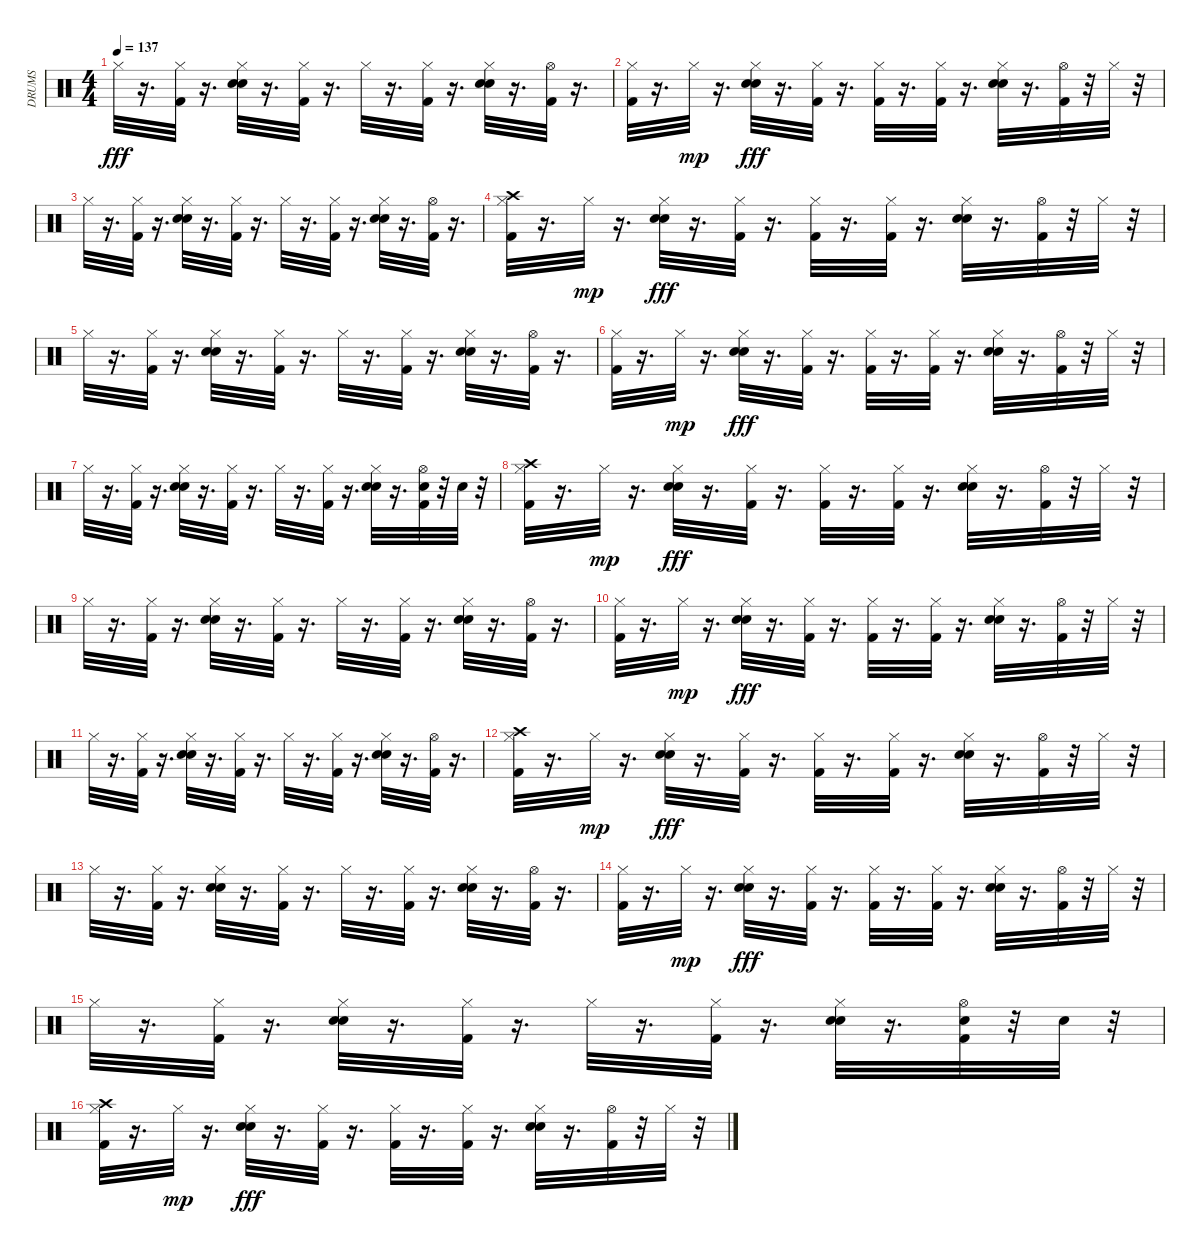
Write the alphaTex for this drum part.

\track ("DRUMS" "DRUMS") {instrument percussion}
\staff {score}
\articulation defaults
\ts (4 4)
\tempo 137
\clef neutral
\ks c "Hi-Hat (closed)".32{dy fff}
r.16{d} ("Hi-Hat (closed)" "Kick (hit) 2").32 r.16{d} ("Snare (hit) 2" "Hand Clap (hit)" "Hi-Hat (closed)").32 r.16{d} ("Hi-Hat (closed)" "Kick (hit) 2").32 r.16{d} "Hi-Hat (closed)".32 r.16{d} ("Hi-Hat (closed)" "Kick (hit) 2").32 r.16{d} ("Hand Clap (hit)" "Hi-Hat (closed)" "Snare (hit) 2").32 r.16{d} ("Hi-Hat (open)" "Kick (hit) 2").32 r.16{d} |
("Hi-Hat (closed)" "Kick (hit) 2").32 r.16{d} "Hi-Hat (closed)".32{dy mp} r.16{d} ("Hand Clap (hit)" "Hi-Hat (closed)" "Snare (hit) 2").32{dy fff} r.16{d} ("Hi-Hat (closed)" "Kick (hit) 2").32 r.16{d} ("Hi-Hat (closed)" "Kick (hit) 2").32 r.16{d} ("Hi-Hat (closed)" "Kick (hit) 2").32 r.16{d} ("Hand Clap (hit)" "Hi-Hat (closed)" "Snare (hit) 2").32 r.16{d} ("Hi-Hat (open)" "Kick (hit) 2").32 r.32 "Hi-Hat (closed)".32 r.32 |
"Hi-Hat (closed)".32 r.16{d} ("Hi-Hat (closed)" "Kick (hit) 2").32 r.16{d} ("Hand Clap (hit)" "Hi-Hat (closed)" "Snare (hit) 2").32 r.16{d} ("Hi-Hat (closed)" "Kick (hit) 2").32 r.16{d} "Hi-Hat (closed)".32 r.16{d} ("Hi-Hat (closed)" "Kick (hit) 2").32 r.16{d} ("Hand Clap (hit)" "Hi-Hat (closed)" "Snare (hit) 2").32 r.16{d} ("Hi-Hat (open)" "Kick (hit) 2").32 r.16{d} |
("Crash high (hit)" "Hi-Hat (closed)" "Kick (hit) 2").32 r.16{d} "Hi-Hat (closed)".32{dy mp} r.16{d} ("Hand Clap (hit)" "Hi-Hat (closed)" "Snare (hit) 2").32{dy fff} r.16{d} ("Hi-Hat (closed)" "Kick (hit) 2").32 r.16{d} ("Hi-Hat (closed)" "Kick (hit) 2").32 r.16{d} ("Hi-Hat (closed)" "Kick (hit) 2").32 r.16{d} ("Snare (hit) 2" "Hand Clap (hit)" "Hi-Hat (closed)").32 r.16{d} ("Hi-Hat (open)" "Kick (hit) 2").32 r.32 "Hi-Hat (closed)".32 r.32 |
"Hi-Hat (closed)".32 r.16{d} ("Hi-Hat (closed)" "Kick (hit) 2").32 r.16{d} ("Hand Clap (hit)" "Hi-Hat (closed)" "Snare (hit) 2").32 r.16{d} ("Hi-Hat (closed)" "Kick (hit) 2").32 r.16{d} "Hi-Hat (closed)".32 r.16{d} ("Hi-Hat (closed)" "Kick (hit) 2").32 r.16{d} ("Hand Clap (hit)" "Hi-Hat (closed)" "Snare (hit) 2").32 r.16{d} ("Hi-Hat (open)" "Kick (hit) 2").32 r.16{d} |
("Hi-Hat (closed)" "Kick (hit) 2").32 r.16{d} "Hi-Hat (closed)".32{dy mp} r.16{d} ("Hand Clap (hit)" "Hi-Hat (closed)" "Snare (hit) 2").32{dy fff} r.16{d} ("Hi-Hat (closed)" "Kick (hit) 2").32 r.16{d} ("Hi-Hat (closed)" "Kick (hit) 2").32 r.16{d} ("Hi-Hat (closed)" "Kick (hit) 2").32 r.16{d} ("Hand Clap (hit)" "Hi-Hat (closed)" "Snare (hit) 2").32 r.16{d} ("Hi-Hat (open)" "Kick (hit) 2").32 r.32 "Hi-Hat (closed)".32 r.32 |
"Hi-Hat (closed)".32 r.16{d} ("Hi-Hat (closed)" "Kick (hit) 2").32 r.16{d} ("Hand Clap (hit)" "Hi-Hat (closed)" "Snare (hit) 2").32 r.16{d} ("Hi-Hat (closed)" "Kick (hit) 2").32 r.16{d} "Hi-Hat (closed)".32 r.16{d} ("Hi-Hat (closed)" "Kick (hit) 2").32 r.16{d} ("Hand Clap (hit)" "Hi-Hat (closed)" "Snare (hit) 2").32 r.16{d} ("Hi-Hat (open)" "Snare (hit) 2" "Kick (hit) 2").32 r.32 "Snare (hit) 2".32 r.32 |
("Crash high (hit)" "Hi-Hat (closed)" "Kick (hit) 2").32 r.16{d} "Hi-Hat (closed)".32{dy mp} r.16{d} ("Hand Clap (hit)" "Hi-Hat (closed)" "Snare (hit) 2").32{dy fff} r.16{d} ("Hi-Hat (closed)" "Kick (hit) 2").32 r.16{d} ("Hi-Hat (closed)" "Kick (hit) 2").32 r.16{d} ("Hi-Hat (closed)" "Kick (hit) 2").32 r.16{d} ("Hand Clap (hit)" "Hi-Hat (closed)" "Snare (hit) 2").32 r.16{d} ("Hi-Hat (open)" "Kick (hit) 2").32 r.32 "Hi-Hat (closed)".32 r.32 |
"Hi-Hat (closed)".32 r.16{d} ("Hi-Hat (closed)" "Kick (hit) 2").32 r.16{d} ("Hand Clap (hit)" "Hi-Hat (closed)" "Snare (hit) 2").32 r.16{d} ("Hi-Hat (closed)" "Kick (hit) 2").32 r.16{d} "Hi-Hat (closed)".32 r.16{d} ("Hi-Hat (closed)" "Kick (hit) 2").32 r.16{d} ("Hand Clap (hit)" "Hi-Hat (closed)" "Snare (hit) 2").32 r.16{d} ("Kick (hit) 2" "Hi-Hat (open)").32 r.16{d} |
("Hi-Hat (closed)" "Kick (hit) 2").32 r.16{d} "Hi-Hat (closed)".32{dy mp} r.16{d} ("Hand Clap (hit)" "Hi-Hat (closed)" "Snare (hit) 2").32{dy fff} r.16{d} ("Hi-Hat (closed)" "Kick (hit) 2").32 r.16{d} ("Hi-Hat (closed)" "Kick (hit) 2").32 r.16{d} ("Hi-Hat (closed)" "Kick (hit) 2").32 r.16{d} ("Hand Clap (hit)" "Hi-Hat (closed)" "Snare (hit) 2").32 r.16{d} ("Hi-Hat (open)" "Kick (hit) 2").32 r.32 "Hi-Hat (closed)".32 r.32 |
"Hi-Hat (closed)".32 r.16{d} ("Hi-Hat (closed)" "Kick (hit) 2").32 r.16{d} ("Hand Clap (hit)" "Hi-Hat (closed)" "Snare (hit) 2").32 r.16{d} ("Hi-Hat (closed)" "Kick (hit) 2").32 r.16{d} "Hi-Hat (closed)".32 r.16{d} ("Hi-Hat (closed)" "Kick (hit) 2").32 r.16{d} ("Hand Clap (hit)" "Hi-Hat (closed)" "Snare (hit) 2").32 r.16{d} ("Hi-Hat (open)" "Kick (hit) 2").32 r.16{d} |
("Crash high (hit)" "Hi-Hat (closed)" "Kick (hit) 2").32 r.16{d} "Hi-Hat (closed)".32{dy mp} r.16{d} ("Hand Clap (hit)" "Hi-Hat (closed)" "Snare (hit) 2").32{dy fff} r.16{d} ("Hi-Hat (closed)" "Kick (hit) 2").32 r.16{d} ("Hi-Hat (closed)" "Kick (hit) 2").32 r.16{d} ("Hi-Hat (closed)" "Kick (hit) 2").32 r.16{d} ("Hand Clap (hit)" "Hi-Hat (closed)" "Snare (hit) 2").32 r.16{d} ("Hi-Hat (open)" "Kick (hit) 2").32 r.32 "Hi-Hat (closed)".32 r.32 |
"Hi-Hat (closed)".32 r.16{d} ("Hi-Hat (closed)" "Kick (hit) 2").32 r.16{d} ("Hand Clap (hit)" "Hi-Hat (closed)" "Snare (hit) 2").32 r.16{d} ("Hi-Hat (closed)" "Kick (hit) 2").32 r.16{d} "Hi-Hat (closed)".32 r.16{d} ("Hi-Hat (closed)" "Kick (hit) 2").32 r.16{d} ("Hand Clap (hit)" "Hi-Hat (closed)" "Snare (hit) 2").32 r.16{d} ("Hi-Hat (open)" "Kick (hit) 2").32 r.16{d} |
("Hi-Hat (closed)" "Kick (hit) 2").32 r.16{d} "Hi-Hat (closed)".32{dy mp} r.16{d} ("Hand Clap (hit)" "Hi-Hat (closed)" "Snare (hit) 2").32{dy fff} r.16{d} ("Hi-Hat (closed)" "Kick (hit) 2").32 r.16{d} ("Hi-Hat (closed)" "Kick (hit) 2").32 r.16{d} ("Hi-Hat (closed)" "Kick (hit) 2").32 r.16{d} ("Hand Clap (hit)" "Hi-Hat (closed)" "Snare (hit) 2").32 r.16{d} ("Hi-Hat (open)" "Kick (hit) 2").32 r.32 "Hi-Hat (closed)".32 r.32 |
"Hi-Hat (closed)".32 r.16{d} ("Hi-Hat (closed)" "Kick (hit) 2").32 r.16{d} ("Hand Clap (hit)" "Hi-Hat (closed)" "Snare (hit) 2").32 r.16{d} ("Hi-Hat (closed)" "Kick (hit) 2").32 r.16{d} "Hi-Hat (closed)".32 r.16{d} ("Hi-Hat (closed)" "Kick (hit) 2").32 r.16{d} ("Hand Clap (hit)" "Hi-Hat (closed)" "Snare (hit) 2").32 r.16{d} ("Hi-Hat (open)" "Snare (hit) 2" "Kick (hit) 2").32 r.32 "Snare (hit) 2".32 r.32 |
("Crash high (hit)" "Hi-Hat (closed)" "Kick (hit) 2").32 r.16{d} "Hi-Hat (closed)".32{dy mp} r.16{d} ("Hand Clap (hit)" "Hi-Hat (closed)" "Snare (hit) 2").32{dy fff} r.16{d} ("Hi-Hat (closed)" "Kick (hit) 2").32 r.16{d} ("Hi-Hat (closed)" "Kick (hit) 2").32 r.16{d} ("Hi-Hat (closed)" "Kick (hit) 2").32 r.16{d} ("Hand Clap (hit)" "Hi-Hat (closed)" "Snare (hit) 2").32 r.16{d} ("Hi-Hat (open)" "Kick (hit) 2").32 r.32 "Hi-Hat (closed)".32 r.32
